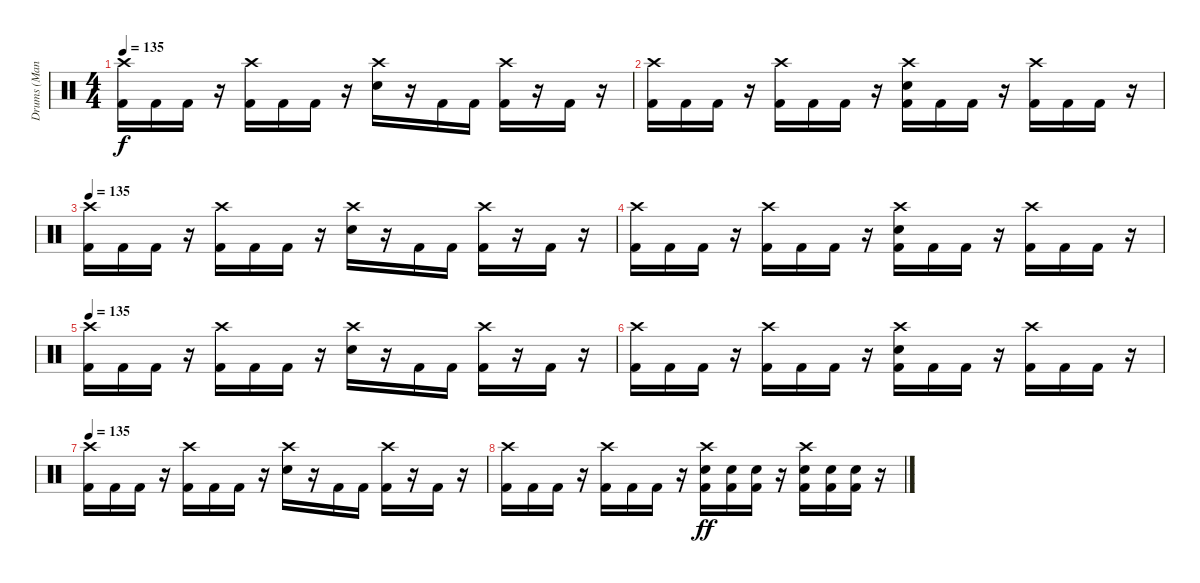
\track ("Drums (Mancino)" "Drums (Man") {instrument percussion}
\staff {score}
\articulation defaults
\ts (4 4)
\tempo 135
\clef neutral
\ks c
("Crash high (hit)" "Kick (hit) 2").16{dy f} "Kick (hit) 2".16 "Kick (hit) 2".16 r.16 ("Crash high (hit)" "Kick (hit) 2").16 "Kick (hit) 2".16 "Kick (hit) 2".16 r.16 ("Crash high (hit)" "Electric Snare (hit)").16 r.16 "Kick (hit) 2".16 "Kick (hit) 2".16 ("Crash high (hit)" "Kick (hit) 2").16 r.16 "Kick (hit) 2".16 r.16 |
("Crash high (hit)" "Kick (hit) 2").16 "Kick (hit) 2".16 "Kick (hit) 2".16 r.16 ("Crash high (hit)" "Kick (hit) 2").16 "Kick (hit) 2".16 "Kick (hit) 2".16 r.16 ("Crash high (hit)" "Electric Snare (hit)" "Kick (hit) 2").16 "Kick (hit) 2".16 "Kick (hit) 2".16 r.16 ("Crash high (hit)" "Kick (hit) 2").16 "Kick (hit) 2".16 "Kick (hit) 2".16 r.16 |
\tempo 135
("Crash high (hit)" "Kick (hit) 2").16 "Kick (hit) 2".16 "Kick (hit) 2".16 r.16 ("Crash high (hit)" "Kick (hit) 2").16 "Kick (hit) 2".16 "Kick (hit) 2".16 r.16 ("Crash high (hit)" "Electric Snare (hit)").16 r.16 "Kick (hit) 2".16 "Kick (hit) 2".16 ("Crash high (hit)" "Kick (hit) 2").16 r.16 "Kick (hit) 2".16 r.16 |
("Crash high (hit)" "Kick (hit) 2").16 "Kick (hit) 2".16 "Kick (hit) 2".16 r.16 ("Crash high (hit)" "Kick (hit) 2").16 "Kick (hit) 2".16 "Kick (hit) 2".16 r.16 ("Crash high (hit)" "Electric Snare (hit)" "Kick (hit) 2").16 "Kick (hit) 2".16 "Kick (hit) 2".16 r.16 ("Crash high (hit)" "Kick (hit) 2").16 "Kick (hit) 2".16 "Kick (hit) 2".16 r.16 |
\tempo 135
("Crash high (hit)" "Kick (hit) 2").16 "Kick (hit) 2".16 "Kick (hit) 2".16 r.16 ("Crash high (hit)" "Kick (hit) 2").16 "Kick (hit) 2".16 "Kick (hit) 2".16 r.16 ("Crash high (hit)" "Electric Snare (hit)").16 r.16 "Kick (hit) 2".16 "Kick (hit) 2".16 ("Crash high (hit)" "Kick (hit) 2").16 r.16 "Kick (hit) 2".16 r.16 |
("Crash high (hit)" "Kick (hit) 2").16 "Kick (hit) 2".16 "Kick (hit) 2".16 r.16 ("Crash high (hit)" "Kick (hit) 2").16 "Kick (hit) 2".16 "Kick (hit) 2".16 r.16 ("Crash high (hit)" "Electric Snare (hit)" "Kick (hit) 2").16 "Kick (hit) 2".16 "Kick (hit) 2".16 r.16 ("Crash high (hit)" "Kick (hit) 2").16 "Kick (hit) 2".16 "Kick (hit) 2".16 r.16 |
\tempo 135
("Crash high (hit)" "Kick (hit) 2").16 "Kick (hit) 2".16 "Kick (hit) 2".16 r.16 ("Crash high (hit)" "Kick (hit) 2").16 "Kick (hit) 2".16 "Kick (hit) 2".16 r.16 ("Crash high (hit)" "Electric Snare (hit)").16 r.16 "Kick (hit) 2".16 "Kick (hit) 2".16 ("Crash high (hit)" "Kick (hit) 2").16 r.16 "Kick (hit) 2".16 r.16 |
("Crash high (hit)" "Kick (hit) 2").16 "Kick (hit) 2".16 "Kick (hit) 2".16 r.16 ("Crash high (hit)" "Kick (hit) 2").16 "Kick (hit) 2".16 "Kick (hit) 2".16 r.16 ("Crash high (hit)" "Electric Snare (hit)" "Kick (hit) 2").16{dy ff} ("Electric Snare (hit)" "Kick (hit) 2").16 ("Electric Snare (hit)" "Kick (hit) 2").16 r.16 ("Crash high (hit)" "Electric Snare (hit)" "Kick (hit) 2").16 ("Electric Snare (hit)" "Kick (hit) 2").16 ("Electric Snare (hit)" "Kick (hit) 2").16 r.16
